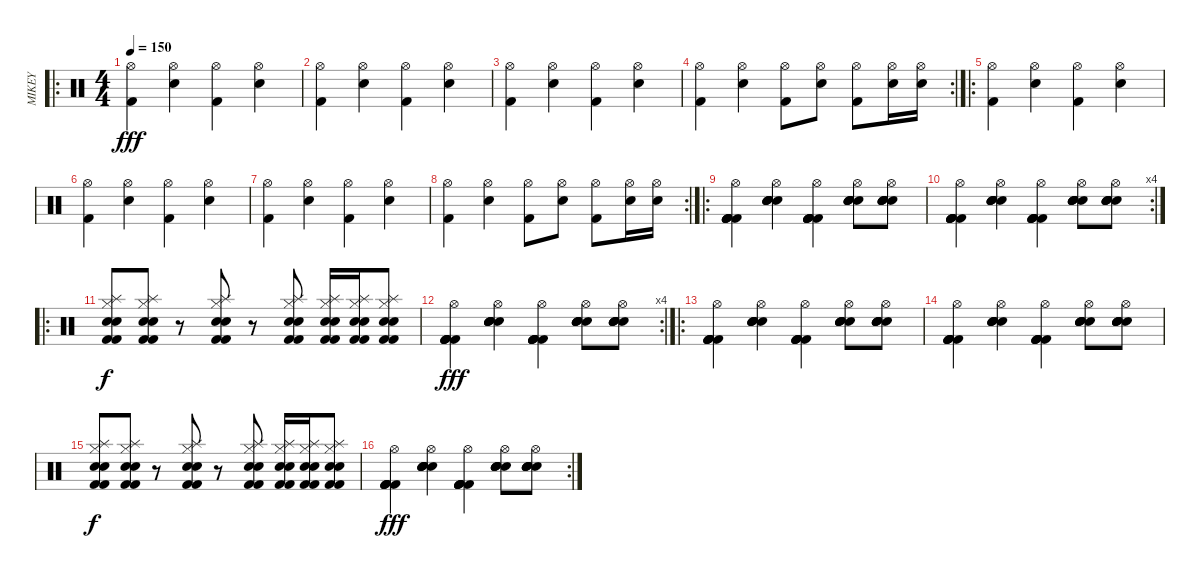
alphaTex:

\track ("MIKEY" "MIKEY") {instrument percussion}
\staff {score}
\articulation defaults
\ro
\ts (4 4)
\tempo 150
\clef neutral
\ks c
("Hi-Hat (open)" "Kick (hit) 2").4{dy fff} ("Hi-Hat (open)" "Electric Snare (hit)").4 ("Hi-Hat (open)" "Kick (hit) 2").4 ("Hi-Hat (open)" "Electric Snare (hit)").4 |
("Hi-Hat (open)" "Kick (hit) 2").4 ("Hi-Hat (open)" "Electric Snare (hit)").4 ("Hi-Hat (open)" "Kick (hit) 2").4 ("Hi-Hat (open)" "Electric Snare (hit)").4 |
("Hi-Hat (open)" "Kick (hit) 2").4 ("Hi-Hat (open)" "Electric Snare (hit)").4 ("Hi-Hat (open)" "Kick (hit) 2").4 ("Hi-Hat (open)" "Electric Snare (hit)").4 |
\rc 2
("Hi-Hat (open)" "Kick (hit) 2").4 ("Hi-Hat (open)" "Electric Snare (hit)").4 ("Hi-Hat (open)" "Kick (hit) 2").8 ("Hi-Hat (open)" "Electric Snare (hit)").8 ("Hi-Hat (open)" "Kick (hit) 2").8 ("Hi-Hat (open)" "Electric Snare (hit)").16 ("Hi-Hat (open)" "Electric Snare (hit)").16 |
\ro
("Hi-Hat (open)" "Kick (hit) 2").4 ("Hi-Hat (open)" "Electric Snare (hit)").4 ("Hi-Hat (open)" "Kick (hit) 2").4 ("Hi-Hat (open)" "Electric Snare (hit)").4 |
("Hi-Hat (open)" "Kick (hit) 2").4 ("Hi-Hat (open)" "Electric Snare (hit)").4 ("Hi-Hat (open)" "Kick (hit) 2").4 ("Hi-Hat (open)" "Electric Snare (hit)").4 |
("Hi-Hat (open)" "Kick (hit) 2").4 ("Hi-Hat (open)" "Electric Snare (hit)").4 ("Hi-Hat (open)" "Kick (hit) 2").4 ("Hi-Hat (open)" "Electric Snare (hit)").4 |
\rc 2
("Hi-Hat (open)" "Kick (hit) 2").4 ("Hi-Hat (open)" "Electric Snare (hit)").4 ("Hi-Hat (open)" "Kick (hit) 2").8 ("Hi-Hat (open)" "Electric Snare (hit)").8 ("Hi-Hat (open)" "Kick (hit) 2").8 ("Hi-Hat (open)" "Electric Snare (hit)").16 ("Hi-Hat (open)" "Electric Snare (hit)").16 |
\ro
("Hi-Hat (open)" "Kick (hit) 2" "Kick (hit) 2" "Kick (hit) 2" "Kick (hit) 2" "Kick (hit) 2").4 ("Hi-Hat (open)" "Electric Snare (hit)" "Electric Snare (hit)" "Electric Snare (hit)" "Electric Snare (hit)" "Electric Snare (hit)").4 ("Hi-Hat (open)" "Kick (hit) 2" "Kick (hit) 2" "Kick (hit) 2" "Kick (hit) 2" "Kick (hit) 2").4 ("Hi-Hat (open)" "Electric Snare (hit)" "Electric Snare (hit)" "Electric Snare (hit)" "Electric Snare (hit)" "Electric Snare (hit)").8 ("Hi-Hat (open)" "Electric Snare (hit)" "Electric Snare (hit)" "Electric Snare (hit)" "Electric Snare (hit)" "Electric Snare (hit)").8 |
\rc 4
("Hi-Hat (open)" "Kick (hit) 2" "Kick (hit) 2" "Kick (hit) 2" "Kick (hit) 2" "Kick (hit) 2").4 ("Hi-Hat (open)" "Electric Snare (hit)" "Electric Snare (hit)" "Electric Snare (hit)" "Electric Snare (hit)" "Electric Snare (hit)").4 ("Hi-Hat (open)" "Kick (hit) 2" "Kick (hit) 2" "Kick (hit) 2" "Kick (hit) 2" "Kick (hit) 2").4 ("Hi-Hat (open)" "Electric Snare (hit)" "Electric Snare (hit)" "Electric Snare (hit)" "Electric Snare (hit)" "Electric Snare (hit)").8 ("Hi-Hat (open)" "Electric Snare (hit)" "Electric Snare (hit)" "Electric Snare (hit)" "Electric Snare (hit)" "Electric Snare (hit)").8 |
\ro
("Splash (hit)" "Hi-Hat (closed)" "Snare (hit) 2" "Kick (hit) 2" "Electric Snare (hit)" "Kick (hit) 2").8{dy f} ("Splash (hit)" "Hi-Hat (closed)" "Snare (hit) 2" "Kick (hit) 2" "Electric Snare (hit)" "Kick (hit) 2").8 r.8 ("Splash (hit)" "Hi-Hat (closed)" "Snare (hit) 2" "Kick (hit) 2" "Electric Snare (hit)" "Kick (hit) 2").8 r.8 ("Splash (hit)" "Hi-Hat (closed)" "Snare (hit) 2" "Kick (hit) 2" "Electric Snare (hit)" "Kick (hit) 2").8 ("Splash (hit)" "Hi-Hat (closed)" "Snare (hit) 2" "Kick (hit) 2" "Electric Snare (hit)" "Kick (hit) 2").16 ("Splash (hit)" "Hi-Hat (closed)" "Snare (hit) 2" "Kick (hit) 2" "Electric Snare (hit)" "Kick (hit) 2").16 ("Splash (hit)" "Hi-Hat (closed)" "Snare (hit) 2" "Kick (hit) 2" "Electric Snare (hit)" "Kick (hit) 2").8 |
\rc 4
("Hi-Hat (open)" "Kick (hit) 2" "Kick (hit) 2" "Kick (hit) 2" "Kick (hit) 2" "Kick (hit) 2").4{dy fff} ("Hi-Hat (open)" "Electric Snare (hit)" "Electric Snare (hit)" "Electric Snare (hit)" "Electric Snare (hit)" "Electric Snare (hit)").4 ("Hi-Hat (open)" "Kick (hit) 2" "Kick (hit) 2" "Kick (hit) 2" "Kick (hit) 2" "Kick (hit) 2").4 ("Hi-Hat (open)" "Electric Snare (hit)" "Electric Snare (hit)" "Electric Snare (hit)" "Electric Snare (hit)" "Electric Snare (hit)").8 ("Hi-Hat (open)" "Electric Snare (hit)" "Electric Snare (hit)" "Electric Snare (hit)" "Electric Snare (hit)" "Electric Snare (hit)").8 |
\ro
("Hi-Hat (open)" "Kick (hit) 2" "Kick (hit) 2" "Kick (hit) 2" "Kick (hit) 2" "Kick (hit) 2").4 ("Hi-Hat (open)" "Electric Snare (hit)" "Electric Snare (hit)" "Electric Snare (hit)" "Electric Snare (hit)" "Electric Snare (hit)").4 ("Hi-Hat (open)" "Kick (hit) 2" "Kick (hit) 2" "Kick (hit) 2" "Kick (hit) 2" "Kick (hit) 2").4 ("Hi-Hat (open)" "Electric Snare (hit)" "Electric Snare (hit)" "Electric Snare (hit)" "Electric Snare (hit)" "Electric Snare (hit)").8 ("Hi-Hat (open)" "Electric Snare (hit)" "Electric Snare (hit)" "Electric Snare (hit)" "Electric Snare (hit)" "Electric Snare (hit)").8 |
("Hi-Hat (open)" "Kick (hit) 2" "Kick (hit) 2" "Kick (hit) 2" "Kick (hit) 2" "Kick (hit) 2").4 ("Hi-Hat (open)" "Electric Snare (hit)" "Electric Snare (hit)" "Electric Snare (hit)" "Electric Snare (hit)" "Electric Snare (hit)").4 ("Hi-Hat (open)" "Kick (hit) 2" "Kick (hit) 2" "Kick (hit) 2" "Kick (hit) 2" "Kick (hit) 2").4 ("Hi-Hat (open)" "Electric Snare (hit)" "Electric Snare (hit)" "Electric Snare (hit)" "Electric Snare (hit)" "Electric Snare (hit)").8 ("Hi-Hat (open)" "Electric Snare (hit)" "Electric Snare (hit)" "Electric Snare (hit)" "Electric Snare (hit)" "Electric Snare (hit)").8 |
("Splash (hit)" "Hi-Hat (closed)" "Snare (hit) 2" "Kick (hit) 2" "Electric Snare (hit)" "Kick (hit) 2").8{dy f} ("Splash (hit)" "Hi-Hat (closed)" "Snare (hit) 2" "Kick (hit) 2" "Electric Snare (hit)" "Kick (hit) 2").8 r.8 ("Splash (hit)" "Hi-Hat (closed)" "Snare (hit) 2" "Kick (hit) 2" "Electric Snare (hit)" "Kick (hit) 2").8 r.8 ("Splash (hit)" "Hi-Hat (closed)" "Snare (hit) 2" "Kick (hit) 2" "Electric Snare (hit)" "Kick (hit) 2").8 ("Splash (hit)" "Hi-Hat (closed)" "Snare (hit) 2" "Kick (hit) 2" "Electric Snare (hit)" "Kick (hit) 2").16 ("Splash (hit)" "Hi-Hat (closed)" "Snare (hit) 2" "Kick (hit) 2" "Electric Snare (hit)" "Kick (hit) 2").16 ("Splash (hit)" "Hi-Hat (closed)" "Snare (hit) 2" "Kick (hit) 2" "Electric Snare (hit)" "Kick (hit) 2").8 |
\rc 2
("Hi-Hat (open)" "Kick (hit) 2" "Kick (hit) 2" "Kick (hit) 2" "Kick (hit) 2" "Kick (hit) 2").4{dy fff} ("Hi-Hat (open)" "Electric Snare (hit)" "Electric Snare (hit)" "Electric Snare (hit)" "Electric Snare (hit)" "Electric Snare (hit)").4 ("Hi-Hat (open)" "Kick (hit) 2" "Kick (hit) 2" "Kick (hit) 2" "Kick (hit) 2" "Kick (hit) 2").4 ("Hi-Hat (open)" "Electric Snare (hit)" "Electric Snare (hit)" "Electric Snare (hit)" "Electric Snare (hit)" "Electric Snare (hit)").8 ("Hi-Hat (open)" "Electric Snare (hit)" "Electric Snare (hit)" "Electric Snare (hit)" "Electric Snare (hit)" "Electric Snare (hit)").8
